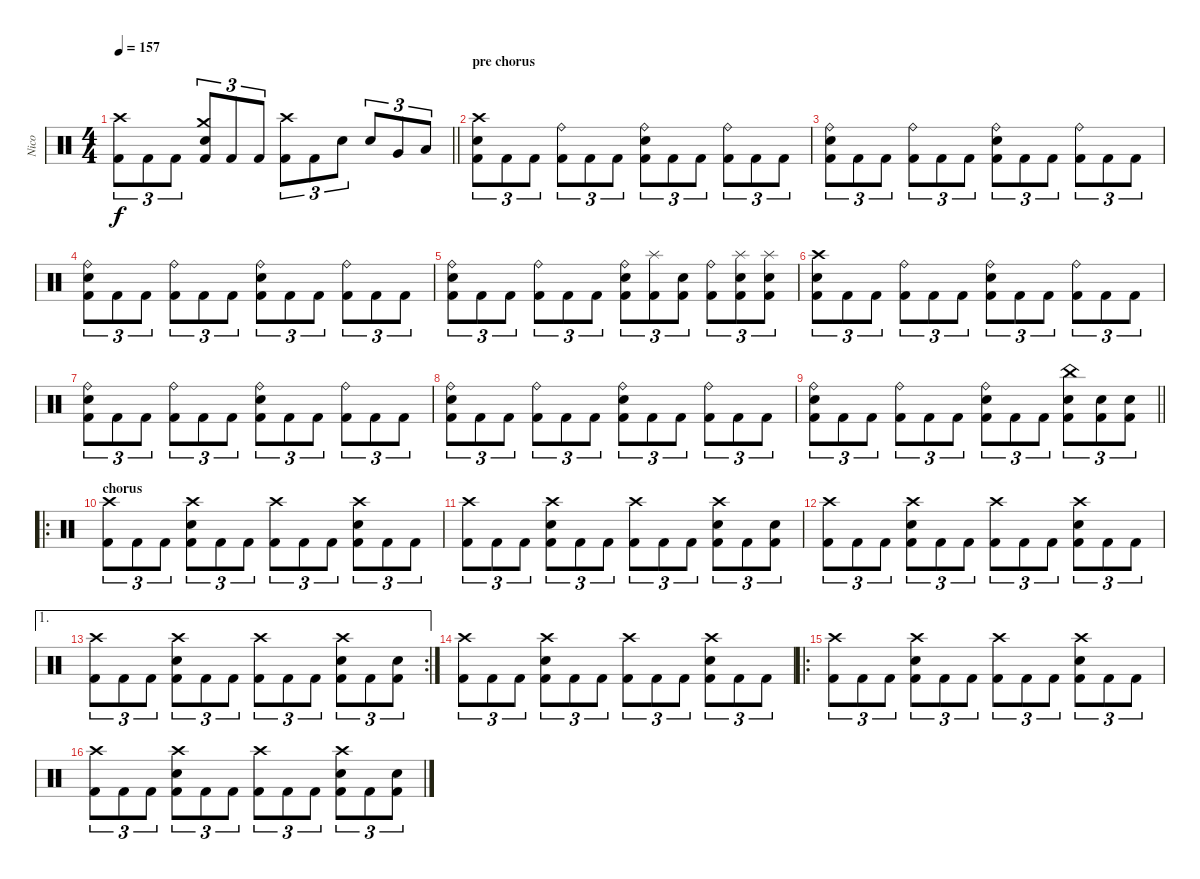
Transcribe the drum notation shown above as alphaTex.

\track ("Nico" "Nico") {instrument percussion}
\staff {score}
\articulation defaults
\ts (4 4)
\tempo 157
\clef neutral
\barLineRight lightlight
\ks c
("Crash high (hit)" "Kick (hit) 2").8{tu (3 2) dy f} "Kick (hit) 2".8{tu (3 2)} "Kick (hit) 2".8{tu (3 2)} ("Crash medium (hit)" "Electric Snare (hit)" "Kick (hit) 2").8{tu (3 2)} "Kick (hit) 2".8{tu (3 2)} "Kick (hit) 2".8{tu (3 2)} ("Crash high (hit)" "Kick (hit) 2").8{tu (3 2)} "Kick (hit) 2".8{tu (3 2)} "Electric Snare (hit)".8{tu (3 2)} "Electric Snare (hit)".8{tu (3 2)} "Very Low Tom (hit)".8{tu (3 2)} "Low Floor Tom (hit)".8{tu (3 2)} |
\section ("" "pre chorus")
("Crash high (hit)" "Electric Snare (hit)" "Kick (hit) 2").8{tu (3 2)} "Kick (hit) 2".8{tu (3 2)} "Kick (hit) 2".8{tu (3 2)} ("Ride (bell)" "Kick (hit) 2").8{tu (3 2)} "Kick (hit) 2".8{tu (3 2)} "Kick (hit) 2".8{tu (3 2)} ("Ride (bell)" "Electric Snare (hit)" "Kick (hit) 2").8{tu (3 2)} "Kick (hit) 2".8{tu (3 2)} "Kick (hit) 2".8{tu (3 2)} ("Ride (bell)" "Kick (hit) 2").8{tu (3 2)} "Kick (hit) 2".8{tu (3 2)} "Kick (hit) 2".8{tu (3 2)} |
("Ride (bell)" "Electric Snare (hit)" "Kick (hit) 2").8{tu (3 2)} "Kick (hit) 2".8{tu (3 2)} "Kick (hit) 2".8{tu (3 2)} ("Ride (bell)" "Kick (hit) 2").8{tu (3 2)} "Kick (hit) 2".8{tu (3 2)} "Kick (hit) 2".8{tu (3 2)} ("Ride (bell)" "Electric Snare (hit)" "Kick (hit) 2").8{tu (3 2)} "Kick (hit) 2".8{tu (3 2)} "Kick (hit) 2".8{tu (3 2)} ("Ride (bell)" "Kick (hit) 2").8{tu (3 2)} "Kick (hit) 2".8{tu (3 2)} "Kick (hit) 2".8{tu (3 2)} |
("Ride (bell)" "Electric Snare (hit)" "Kick (hit) 2").8{tu (3 2)} "Kick (hit) 2".8{tu (3 2)} "Kick (hit) 2".8{tu (3 2)} ("Ride (bell)" "Kick (hit) 2").8{tu (3 2)} "Kick (hit) 2".8{tu (3 2)} "Kick (hit) 2".8{tu (3 2)} ("Ride (bell)" "Electric Snare (hit)" "Kick (hit) 2").8{tu (3 2)} "Kick (hit) 2".8{tu (3 2)} "Kick (hit) 2".8{tu (3 2)} ("Ride (bell)" "Kick (hit) 2").8{tu (3 2)} "Kick (hit) 2".8{tu (3 2)} "Kick (hit) 2".8{tu (3 2)} |
("Ride (bell)" "Electric Snare (hit)" "Kick (hit) 2").8{tu (3 2)} "Kick (hit) 2".8{tu (3 2)} "Kick (hit) 2".8{tu (3 2)} ("Ride (bell)" "Kick (hit) 2").8{tu (3 2)} "Kick (hit) 2".8{tu (3 2)} "Kick (hit) 2".8{tu (3 2)} ("Ride (bell)" "Electric Snare (hit)" "Kick (hit) 2").8{tu (3 2)} ("Splash (hit)" "Kick (hit) 2").8{tu (3 2)} ("Electric Snare (hit)" "Kick (hit) 2").8{tu (3 2)} ("Ride (bell)" "Kick (hit) 2").8{tu (3 2)} ("Splash (hit)" "Electric Snare (hit)" "Kick (hit) 2").8{tu (3 2)} ("Splash (hit)" "Electric Snare (hit)" "Kick (hit) 2").8{tu (3 2)} |
("Crash high (hit)" "Electric Snare (hit)" "Kick (hit) 2").8{tu (3 2)} "Kick (hit) 2".8{tu (3 2)} "Kick (hit) 2".8{tu (3 2)} ("Ride (bell)" "Kick (hit) 2").8{tu (3 2)} "Kick (hit) 2".8{tu (3 2)} "Kick (hit) 2".8{tu (3 2)} ("Ride (bell)" "Electric Snare (hit)" "Kick (hit) 2").8{tu (3 2)} "Kick (hit) 2".8{tu (3 2)} "Kick (hit) 2".8{tu (3 2)} ("Ride (bell)" "Kick (hit) 2").8{tu (3 2)} "Kick (hit) 2".8{tu (3 2)} "Kick (hit) 2".8{tu (3 2)} |
("Ride (bell)" "Electric Snare (hit)" "Kick (hit) 2").8{tu (3 2)} "Kick (hit) 2".8{tu (3 2)} "Kick (hit) 2".8{tu (3 2)} ("Ride (bell)" "Kick (hit) 2").8{tu (3 2)} "Kick (hit) 2".8{tu (3 2)} "Kick (hit) 2".8{tu (3 2)} ("Ride (bell)" "Electric Snare (hit)" "Kick (hit) 2").8{tu (3 2)} "Kick (hit) 2".8{tu (3 2)} "Kick (hit) 2".8{tu (3 2)} ("Ride (bell)" "Kick (hit) 2").8{tu (3 2)} "Kick (hit) 2".8{tu (3 2)} "Kick (hit) 2".8{tu (3 2)} |
("Ride (bell)" "Electric Snare (hit)" "Kick (hit) 2").8{tu (3 2)} "Kick (hit) 2".8{tu (3 2)} "Kick (hit) 2".8{tu (3 2)} ("Ride (bell)" "Kick (hit) 2").8{tu (3 2)} "Kick (hit) 2".8{tu (3 2)} "Kick (hit) 2".8{tu (3 2)} ("Ride (bell)" "Electric Snare (hit)" "Kick (hit) 2").8{tu (3 2)} "Kick (hit) 2".8{tu (3 2)} "Kick (hit) 2".8{tu (3 2)} ("Ride (bell)" "Kick (hit) 2").8{tu (3 2)} "Kick (hit) 2".8{tu (3 2)} "Kick (hit) 2".8{tu (3 2)} |
\barLineRight lightlight
("Ride (bell)" "Electric Snare (hit)" "Kick (hit) 2").8{tu (3 2)} "Kick (hit) 2".8{tu (3 2)} "Kick (hit) 2".8{tu (3 2)} ("Ride (bell)" "Kick (hit) 2").8{tu (3 2)} "Kick (hit) 2".8{tu (3 2)} "Kick (hit) 2".8{tu (3 2)} ("Ride (bell)" "Electric Snare (hit)" "Kick (hit) 2").8{tu (3 2)} "Kick (hit) 2".8{tu (3 2)} "Kick (hit) 2".8{tu (3 2)} ("China (hit)" "Electric Snare (hit)" "Kick (hit) 2").8{tu (3 2)} ("Electric Snare (hit)" "Kick (hit) 2").8{tu (3 2)} ("Electric Snare (hit)" "Kick (hit) 2").8{tu (3 2)} |
\ro
\section ("" "chorus")
("Crash high (hit)" "Kick (hit) 2").8{tu (3 2)} "Kick (hit) 2".8{tu (3 2)} "Kick (hit) 2".8{tu (3 2)} ("Crash high (hit)" "Electric Snare (hit)" "Kick (hit) 2").8{tu (3 2)} "Kick (hit) 2".8{tu (3 2)} "Kick (hit) 2".8{tu (3 2)} ("Crash high (hit)" "Kick (hit) 2").8{tu (3 2)} "Kick (hit) 2".8{tu (3 2)} "Kick (hit) 2".8{tu (3 2)} ("Crash high (hit)" "Electric Snare (hit)" "Kick (hit) 2").8{tu (3 2)} "Kick (hit) 2".8{tu (3 2)} "Kick (hit) 2".8{tu (3 2)} |
("Crash high (hit)" "Kick (hit) 2").8{tu (3 2)} "Kick (hit) 2".8{tu (3 2)} "Kick (hit) 2".8{tu (3 2)} ("Crash high (hit)" "Electric Snare (hit)" "Kick (hit) 2").8{tu (3 2)} "Kick (hit) 2".8{tu (3 2)} "Kick (hit) 2".8{tu (3 2)} ("Crash high (hit)" "Kick (hit) 2").8{tu (3 2)} "Kick (hit) 2".8{tu (3 2)} "Kick (hit) 2".8{tu (3 2)} ("Crash high (hit)" "Electric Snare (hit)" "Kick (hit) 2").8{tu (3 2)} "Kick (hit) 2".8{tu (3 2)} ("Electric Snare (hit)" "Kick (hit) 2").8{tu (3 2)} |
("Crash high (hit)" "Kick (hit) 2").8{tu (3 2)} "Kick (hit) 2".8{tu (3 2)} "Kick (hit) 2".8{tu (3 2)} ("Crash high (hit)" "Electric Snare (hit)" "Kick (hit) 2").8{tu (3 2)} "Kick (hit) 2".8{tu (3 2)} "Kick (hit) 2".8{tu (3 2)} ("Crash high (hit)" "Kick (hit) 2").8{tu (3 2)} "Kick (hit) 2".8{tu (3 2)} "Kick (hit) 2".8{tu (3 2)} ("Crash high (hit)" "Electric Snare (hit)" "Kick (hit) 2").8{tu (3 2)} "Kick (hit) 2".8{tu (3 2)} "Kick (hit) 2".8{tu (3 2)} |
\ae 1
\rc 2
("Crash high (hit)" "Kick (hit) 2").8{tu (3 2)} "Kick (hit) 2".8{tu (3 2)} "Kick (hit) 2".8{tu (3 2)} ("Crash high (hit)" "Electric Snare (hit)" "Kick (hit) 2").8{tu (3 2)} "Kick (hit) 2".8{tu (3 2)} "Kick (hit) 2".8{tu (3 2)} ("Crash high (hit)" "Kick (hit) 2").8{tu (3 2)} "Kick (hit) 2".8{tu (3 2)} "Kick (hit) 2".8{tu (3 2)} ("Crash high (hit)" "Electric Snare (hit)" "Kick (hit) 2").8{tu (3 2)} "Kick (hit) 2".8{tu (3 2)} ("Electric Snare (hit)" "Kick (hit) 2").8{tu (3 2)} |
("Crash high (hit)" "Kick (hit) 2").8{tu (3 2)} "Kick (hit) 2".8{tu (3 2)} "Kick (hit) 2".8{tu (3 2)} ("Crash high (hit)" "Electric Snare (hit)" "Kick (hit) 2").8{tu (3 2)} "Kick (hit) 2".8{tu (3 2)} "Kick (hit) 2".8{tu (3 2)} ("Crash high (hit)" "Kick (hit) 2").8{tu (3 2)} "Kick (hit) 2".8{tu (3 2)} "Kick (hit) 2".8{tu (3 2)} ("Crash high (hit)" "Electric Snare (hit)" "Kick (hit) 2").8{tu (3 2)} "Kick (hit) 2".8{tu (3 2)} "Kick (hit) 2".8{tu (3 2)} |
\ro
("Crash high (hit)" "Kick (hit) 2").8{tu (3 2)} "Kick (hit) 2".8{tu (3 2)} "Kick (hit) 2".8{tu (3 2)} ("Crash high (hit)" "Electric Snare (hit)" "Kick (hit) 2").8{tu (3 2)} "Kick (hit) 2".8{tu (3 2)} "Kick (hit) 2".8{tu (3 2)} ("Crash high (hit)" "Kick (hit) 2").8{tu (3 2)} "Kick (hit) 2".8{tu (3 2)} "Kick (hit) 2".8{tu (3 2)} ("Crash high (hit)" "Electric Snare (hit)" "Kick (hit) 2").8{tu (3 2)} "Kick (hit) 2".8{tu (3 2)} "Kick (hit) 2".8{tu (3 2)} |
("Crash high (hit)" "Kick (hit) 2").8{tu (3 2)} "Kick (hit) 2".8{tu (3 2)} "Kick (hit) 2".8{tu (3 2)} ("Crash high (hit)" "Electric Snare (hit)" "Kick (hit) 2").8{tu (3 2)} "Kick (hit) 2".8{tu (3 2)} "Kick (hit) 2".8{tu (3 2)} ("Crash high (hit)" "Kick (hit) 2").8{tu (3 2)} "Kick (hit) 2".8{tu (3 2)} "Kick (hit) 2".8{tu (3 2)} ("Crash high (hit)" "Electric Snare (hit)" "Kick (hit) 2").8{tu (3 2)} "Kick (hit) 2".8{tu (3 2)} ("Electric Snare (hit)" "Kick (hit) 2").8{tu (3 2)}
